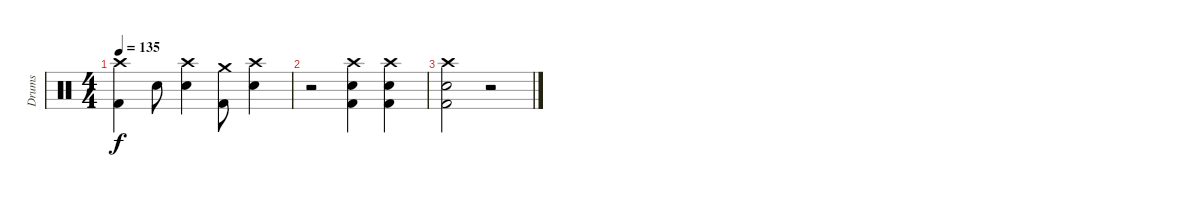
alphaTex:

\track ("Drums" "Drums") {instrument percussion}
\staff {score}
\articulation defaults
\ts (4 4)
\tempo 135
\clef neutral
\ks c
("Crash high (hit)" "Kick (hit) 2").4{dy f} "Snare (hit) 2".8 ("Crash high (hit)" "Snare (hit) 2").4 ("Crash medium (hit)" "Kick (hit) 2").8 ("Crash high (hit)" "Snare (hit) 2").4 |
r.2 ("Crash high (hit)" "Snare (hit) 2" "Kick (hit) 2").4 ("Crash high (hit)" "Snare (hit) 2" "Kick (hit) 2").4 |
("Crash high (hit)" "Snare (hit) 2" "Kick (hit) 2").2 r.2
